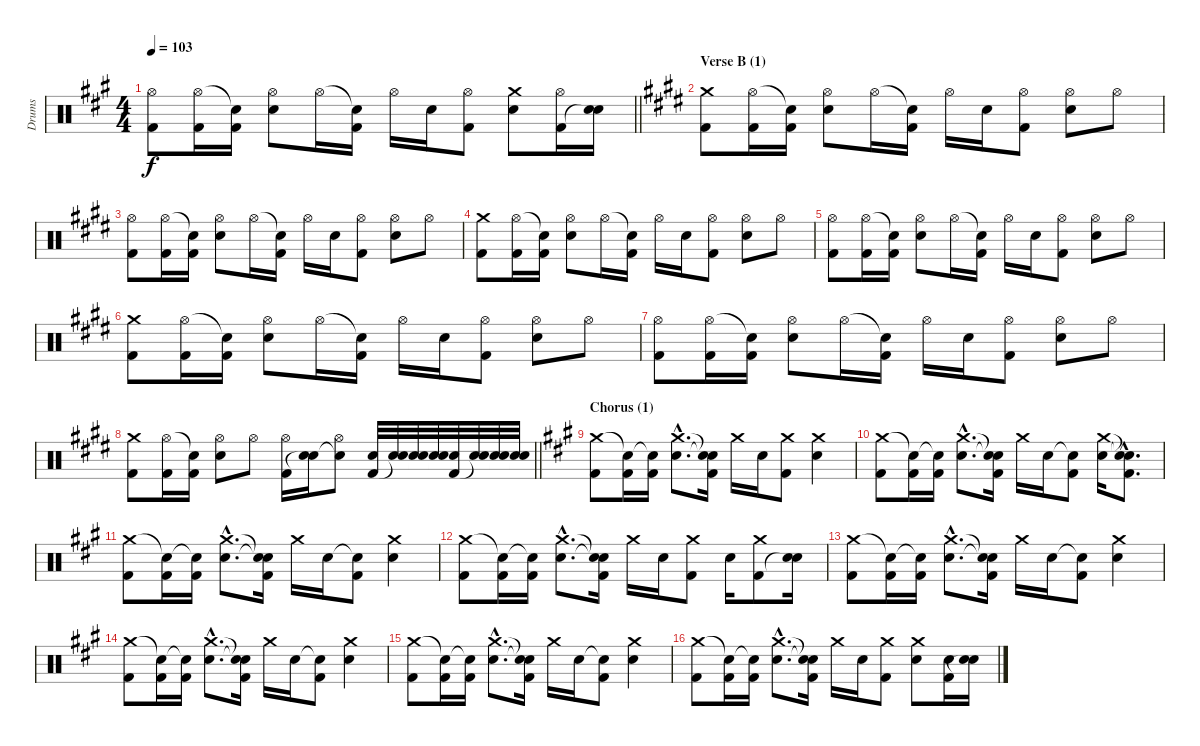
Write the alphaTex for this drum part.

\track ("Drums" "Drums") {instrument percussion}
\staff {score}
\articulation defaults
\ts (4 4)
\tempo 103
\clef neutral
\barLineRight lightlight
\ks f#minor
("Hi-Hat (open)" "Kick (hit) 2").8{dy f} ("Hi-Hat (open)" "Kick (hit) 2").16 ("Snare (hit)"{t} "Kick (hit) 2").16 ("Hi-Hat (open)" "Electric Snare (hit)").8 "Hi-Hat (open)".16 ("Snare (hit)"{t} "Kick (hit) 2").16 "Hi-Hat (open)".16 "Electric Snare (hit)".16 ("Hi-Hat (open)" "Kick (hit) 2").8 ("Crash medium (hit)" "Electric Snare (hit)").8 ("Hi-Hat (open)" "Kick (hit) 2").16 ("Electric Snare (hit)" "Snare (hit)"{t}).16 |
\section ("" "Verse B (1)")
\ks c#minor
("Crash medium (hit)" "Kick (hit) 2").8 ("Hi-Hat (open)" "Kick (hit) 2").16 ("Snare (hit)"{t} "Kick (hit) 2").16 ("Hi-Hat (open)" "Electric Snare (hit)").8 "Hi-Hat (open)".16 ("Snare (hit)"{t} "Kick (hit) 2").16 "Hi-Hat (open)".16 "Electric Snare (hit)".16 ("Hi-Hat (open)" "Kick (hit) 2").8 ("Hi-Hat (open)" "Electric Snare (hit)").8 "Hi-Hat (open)".8 |
("Hi-Hat (open)" "Kick (hit) 2").8 ("Hi-Hat (open)" "Kick (hit) 2").16 ("Snare (hit)"{t} "Kick (hit) 2").16 ("Hi-Hat (open)" "Electric Snare (hit)").8 "Hi-Hat (open)".16 ("Snare (hit)"{t} "Kick (hit) 2").16 "Hi-Hat (open)".16 "Electric Snare (hit)".16 ("Hi-Hat (open)" "Kick (hit) 2").8 ("Hi-Hat (open)" "Electric Snare (hit)").8 "Hi-Hat (open)".8 |
("Crash medium (hit)" "Kick (hit) 2").8 ("Hi-Hat (open)" "Kick (hit) 2").16 ("Snare (hit)"{t} "Kick (hit) 2").16 ("Hi-Hat (open)" "Electric Snare (hit)").8 "Hi-Hat (open)".16 ("Snare (hit)"{t} "Kick (hit) 2").16 "Hi-Hat (open)".16 "Electric Snare (hit)".16 ("Hi-Hat (open)" "Kick (hit) 2").8 ("Hi-Hat (open)" "Electric Snare (hit)").8 "Hi-Hat (open)".8 |
("Hi-Hat (open)" "Kick (hit) 2").8 ("Hi-Hat (open)" "Kick (hit) 2").16 ("Snare (hit)"{t} "Kick (hit) 2").16 ("Hi-Hat (open)" "Electric Snare (hit)").8 "Hi-Hat (open)".16 ("Snare (hit)"{t} "Kick (hit) 2").16 "Hi-Hat (open)".16 "Electric Snare (hit)".16 ("Hi-Hat (open)" "Kick (hit) 2").8 ("Hi-Hat (open)" "Electric Snare (hit)").8 "Hi-Hat (open)".8 |
("Crash medium (hit)" "Kick (hit) 2").8 ("Hi-Hat (open)" "Kick (hit) 2").16 ("Snare (hit)"{t} "Kick (hit) 2").16 ("Hi-Hat (open)" "Electric Snare (hit)").8 "Hi-Hat (open)".16 ("Snare (hit)"{t} "Kick (hit) 2").16 "Hi-Hat (open)".16 "Electric Snare (hit)".16 ("Hi-Hat (open)" "Kick (hit) 2").8 ("Hi-Hat (open)" "Electric Snare (hit)").8 "Hi-Hat (open)".8 |
("Hi-Hat (open)" "Kick (hit) 2").8 ("Hi-Hat (open)" "Kick (hit) 2").16 ("Snare (hit)"{t} "Kick (hit) 2").16 ("Hi-Hat (open)" "Electric Snare (hit)").8 "Hi-Hat (open)".16 ("Snare (hit)"{t} "Kick (hit) 2").16 "Hi-Hat (open)".16 "Electric Snare (hit)".16 ("Hi-Hat (open)" "Kick (hit) 2").8 ("Hi-Hat (open)" "Electric Snare (hit)").8 "Hi-Hat (open)".8 |
\barLineRight lightlight
("Crash medium (hit)" "Kick (hit) 2").8 ("Hi-Hat (open)" "Kick (hit) 2").16 ("Snare (hit)"{t} "Kick (hit) 2").16 ("Hi-Hat (open)" "Electric Snare (hit)").8 "Hi-Hat (open)".8 ("Hi-Hat (open)" "Kick (hit) 2").16 ("Electric Snare (hit)" "Snare (hit)"{t}).16 ("Hi-Hat (open)" "Snare (hit)"{t}).8 ("Electric Snare (hit)" "Kick (hit) 2").32 ("Electric Snare (hit)" "Snare (hit)"{t}).32 ("Electric Snare (hit)" "Snare (hit)"{t}).32 ("Electric Snare (hit)" "Snare (hit)"{t}).32 ("Electric Snare (hit)" "Kick (hit) 2").32 ("Electric Snare (hit)" "Snare (hit)"{t}).32 ("Electric Snare (hit)" "Snare (hit)"{t}).32 ("Electric Snare (hit)" "Snare (hit)"{t}).32 |
\section ("" "Chorus (1)")
\ks f#minor
("Crash medium (hit)" "Kick (hit) 2").8 ("Snare (hit)"{t} "Kick (hit) 2").16 ("Snare (hit)"{t} "Kick (hit) 2").16 ("Crash medium (hit)"{hac} "Electric Snare (hit)"{hac}).8{d} ("Snare (hit)"{t} "Snare (hit)"{t} "Kick (hit) 2").16 "Crash medium (hit)".16 "Electric Snare (hit)".16 ("Crash medium (hit)" "Kick (hit) 2").8 ("Crash medium (hit)" "Electric Snare (hit)").4 |
("Crash medium (hit)" "Kick (hit) 2").8 ("Snare (hit)"{t} "Kick (hit) 2").16 ("Snare (hit)"{t} "Kick (hit) 2").16 ("Crash medium (hit)"{hac} "Electric Snare (hit)"{hac}).8{d} ("Snare (hit)"{t} "Snare (hit)"{t} "Kick (hit) 2").16 "Crash medium (hit)".16 "Electric Snare (hit)".16 ("Snare (hit)"{t} "Kick (hit) 2").8 ("Crash medium (hit)" "Electric Snare (hit)").16 ("Snare (hit)"{hac t} "Snare (hit)"{hac t} "Kick (hit) 2"{hac}).8{d} |
("Crash medium (hit)" "Kick (hit) 2").8 ("Snare (hit)"{t} "Kick (hit) 2").16 ("Snare (hit)"{t} "Kick (hit) 2").16 ("Crash medium (hit)"{hac} "Electric Snare (hit)"{hac}).8{d} ("Snare (hit)"{t} "Snare (hit)"{t} "Kick (hit) 2").16 "Crash medium (hit)".16 "Electric Snare (hit)".16 ("Snare (hit)"{t} "Kick (hit) 2").8 ("Crash medium (hit)" "Electric Snare (hit)").4 |
("Crash medium (hit)" "Kick (hit) 2").8 ("Snare (hit)"{t} "Kick (hit) 2").16 ("Snare (hit)"{t} "Kick (hit) 2").16 ("Crash medium (hit)"{hac} "Electric Snare (hit)"{hac}).8{d} ("Snare (hit)"{t} "Snare (hit)"{t} "Kick (hit) 2").16 "Crash medium (hit)".16 "Electric Snare (hit)".16 ("Crash medium (hit)" "Kick (hit) 2").8 "Electric Snare (hit)".16 ("Crash medium (hit)" "Kick (hit) 2").8 ("Electric Snare (hit)" "Snare (hit)"{t}).16 |
("Crash medium (hit)" "Kick (hit) 2").8 ("Snare (hit)"{t} "Kick (hit) 2").16 ("Snare (hit)"{t} "Kick (hit) 2").16 ("Crash medium (hit)"{hac} "Electric Snare (hit)"{hac}).8{d} ("Snare (hit)"{t} "Snare (hit)"{t} "Kick (hit) 2").16 "Crash medium (hit)".16 "Electric Snare (hit)".16 ("Snare (hit)"{t} "Kick (hit) 2").8 ("Crash medium (hit)" "Electric Snare (hit)").4 |
("Crash medium (hit)" "Kick (hit) 2").8 ("Snare (hit)"{t} "Kick (hit) 2").16 ("Snare (hit)"{t} "Kick (hit) 2").16 ("Crash medium (hit)"{hac} "Electric Snare (hit)"{hac}).8{d} ("Snare (hit)"{t} "Snare (hit)"{t} "Kick (hit) 2").16 "Crash medium (hit)".16 "Electric Snare (hit)".16 ("Snare (hit)"{t} "Kick (hit) 2").8 ("Crash medium (hit)" "Electric Snare (hit)").4 |
("Crash medium (hit)" "Kick (hit) 2").8 ("Snare (hit)"{t} "Kick (hit) 2").16 ("Snare (hit)"{t} "Kick (hit) 2").16 ("Crash medium (hit)"{hac} "Electric Snare (hit)"{hac}).8{d} ("Snare (hit)"{t} "Snare (hit)"{t} "Kick (hit) 2").16 "Crash medium (hit)".16 "Electric Snare (hit)".16 ("Snare (hit)"{t} "Kick (hit) 2").8 ("Crash medium (hit)" "Electric Snare (hit)").4 |
("Crash medium (hit)" "Kick (hit) 2").8 ("Snare (hit)"{t} "Kick (hit) 2").16 ("Snare (hit)"{t} "Kick (hit) 2").16 ("Crash medium (hit)"{hac} "Electric Snare (hit)"{hac}).8{d} ("Snare (hit)"{t} "Snare (hit)"{t} "Kick (hit) 2").16 "Crash medium (hit)".16 "Electric Snare (hit)".16 ("Crash medium (hit)" "Kick (hit) 2").8 ("Crash medium (hit)" "Electric Snare (hit)").8 ("Electric Snare (hit)" "Kick (hit) 2").16 ("Electric Snare (hit)" "Snare (hit)"{t}).16
